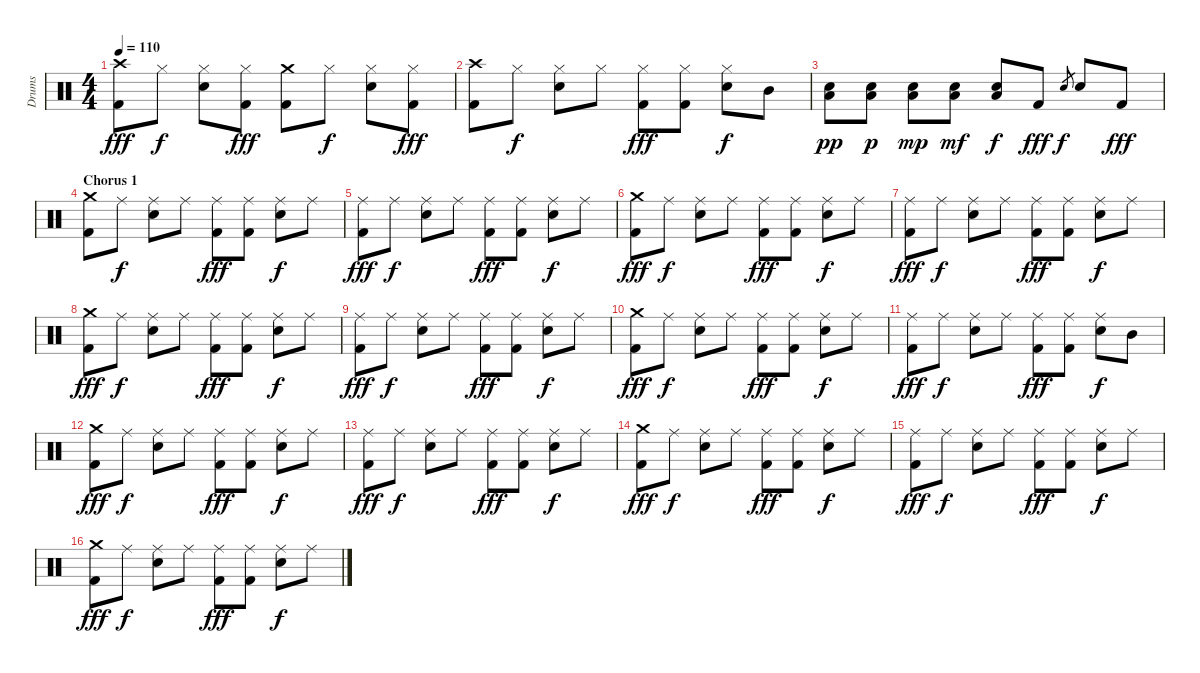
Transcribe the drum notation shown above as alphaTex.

\track ("Drums" "Drums") {instrument percussion}
\staff {score}
\articulation defaults
\ts (4 4)
\tempo 110
\clef neutral
\ks c
("Crash high (hit)" "Kick (hit) 2").8{dy fff} "Hi-Hat (closed)".8{dy f} ("Hi-Hat (closed)" "Snare (hit) 2").8 ("Hi-Hat (closed)" "Kick (hit) 2").8{dy fff} ("Crash medium (hit)" "Kick (hit) 2").8 "Hi-Hat (closed)".8{dy f} ("Hi-Hat (closed)" "Snare (hit) 2").8 ("Hi-Hat (closed)" "Kick (hit) 2").8{dy fff} |
("Crash high (hit)" "Kick (hit) 2").8 "Hi-Hat (closed)".8{dy f} ("Hi-Hat (closed)" "Snare (hit) 2").8 "Hi-Hat (closed)".8 ("Hi-Hat (closed)" "Kick (hit) 2").8{dy fff} ("Hi-Hat (closed)" "Kick (hit) 2").8 ("Hi-Hat (closed)" "Snare (hit) 2").8{dy f} "Mid Tom (hit)".8 |
("Snare (hit) 2" "Low Floor Tom (hit)").8{dy pp} ("Snare (hit) 2" "Low Floor Tom (hit)").8{dy p} ("Snare (hit) 2" "Low Floor Tom (hit)").8{dy mp} ("Snare (hit) 2" "Low Floor Tom (hit)").8{dy mf} ("Snare (hit) 2" "Low Floor Tom (hit)").8{dy f} "Kick (hit) 2".8{dy fff} "Snare (hit) 2".8{gr dy f} "Snare (hit) 2".8 "Kick (hit) 2".8{dy fff} |
\section ("" "Chorus 1")
("Crash medium (hit)" "Kick (hit) 2").8 "Ride (middle)".8{dy f} ("Ride (middle)" "Snare (hit) 2").8 "Ride (middle)".8 ("Ride (middle)" "Kick (hit) 2").8{dy fff} ("Ride (middle)" "Kick (hit) 2").8 ("Ride (middle)" "Snare (hit) 2").8{dy f} "Ride (middle)".8 |
("Ride (middle)" "Kick (hit) 2").8{dy fff} "Ride (middle)".8{dy f} ("Ride (middle)" "Snare (hit) 2").8 "Ride (middle)".8 ("Ride (middle)" "Kick (hit) 2").8{dy fff} ("Ride (middle)" "Kick (hit) 2").8 ("Ride (middle)" "Snare (hit) 2").8{dy f} "Ride (middle)".8 |
("Crash medium (hit)" "Kick (hit) 2").8{dy fff} "Ride (middle)".8{dy f} ("Ride (middle)" "Snare (hit) 2").8 "Ride (middle)".8 ("Ride (middle)" "Kick (hit) 2").8{dy fff} ("Ride (middle)" "Kick (hit) 2").8 ("Ride (middle)" "Snare (hit) 2").8{dy f} "Ride (middle)".8 |
("Ride (middle)" "Kick (hit) 2").8{dy fff} "Ride (middle)".8{dy f} ("Ride (middle)" "Snare (hit) 2").8 "Ride (middle)".8 ("Ride (middle)" "Kick (hit) 2").8{dy fff} ("Ride (middle)" "Kick (hit) 2").8 ("Ride (middle)" "Snare (hit) 2").8{dy f} "Ride (middle)".8 |
("Crash medium (hit)" "Kick (hit) 2").8{dy fff} "Ride (middle)".8{dy f} ("Ride (middle)" "Snare (hit) 2").8 "Ride (middle)".8 ("Ride (middle)" "Kick (hit) 2").8{dy fff} ("Ride (middle)" "Kick (hit) 2").8 ("Ride (middle)" "Snare (hit) 2").8{dy f} "Ride (middle)".8 |
("Ride (middle)" "Kick (hit) 2").8{dy fff} "Ride (middle)".8{dy f} ("Ride (middle)" "Snare (hit) 2").8 "Ride (middle)".8 ("Ride (middle)" "Kick (hit) 2").8{dy fff} ("Ride (middle)" "Kick (hit) 2").8 ("Ride (middle)" "Snare (hit) 2").8{dy f} "Ride (middle)".8 |
("Crash medium (hit)" "Kick (hit) 2").8{dy fff} "Ride (middle)".8{dy f} ("Ride (middle)" "Snare (hit) 2").8 "Ride (middle)".8 ("Ride (middle)" "Kick (hit) 2").8{dy fff} ("Ride (middle)" "Kick (hit) 2").8 ("Ride (middle)" "Snare (hit) 2").8{dy f} "Ride (middle)".8 |
("Ride (middle)" "Kick (hit) 2").8{dy fff} "Ride (middle)".8{dy f} ("Ride (middle)" "Snare (hit) 2").8 "Ride (middle)".8 ("Ride (middle)" "Kick (hit) 2").8{dy fff} ("Ride (middle)" "Kick (hit) 2").8 ("Ride (middle)" "Snare (hit) 2").8{dy f} "Mid Tom (hit)".8 |
("Crash medium (hit)" "Kick (hit) 2").8{dy fff} "Ride (middle)".8{dy f} ("Ride (middle)" "Snare (hit) 2").8 "Ride (middle)".8 ("Ride (middle)" "Kick (hit) 2").8{dy fff} ("Ride (middle)" "Kick (hit) 2").8 ("Ride (middle)" "Snare (hit) 2").8{dy f} "Ride (middle)".8 |
("Ride (middle)" "Kick (hit) 2").8{dy fff} "Ride (middle)".8{dy f} ("Ride (middle)" "Snare (hit) 2").8 "Ride (middle)".8 ("Ride (middle)" "Kick (hit) 2").8{dy fff} ("Ride (middle)" "Kick (hit) 2").8 ("Ride (middle)" "Snare (hit) 2").8{dy f} "Ride (middle)".8 |
("Crash medium (hit)" "Kick (hit) 2").8{dy fff} "Ride (middle)".8{dy f} ("Ride (middle)" "Snare (hit) 2").8 "Ride (middle)".8 ("Ride (middle)" "Kick (hit) 2").8{dy fff} ("Ride (middle)" "Kick (hit) 2").8 ("Ride (middle)" "Snare (hit) 2").8{dy f} "Ride (middle)".8 |
("Ride (middle)" "Kick (hit) 2").8{dy fff} "Ride (middle)".8{dy f} ("Ride (middle)" "Snare (hit) 2").8 "Ride (middle)".8 ("Ride (middle)" "Kick (hit) 2").8{dy fff} ("Ride (middle)" "Kick (hit) 2").8 ("Ride (middle)" "Snare (hit) 2").8{dy f} "Ride (middle)".8 |
("Crash medium (hit)" "Kick (hit) 2").8{dy fff} "Ride (middle)".8{dy f} ("Ride (middle)" "Snare (hit) 2").8 "Ride (middle)".8 ("Ride (middle)" "Kick (hit) 2").8{dy fff} ("Ride (middle)" "Kick (hit) 2").8 ("Ride (middle)" "Snare (hit) 2").8{dy f} "Ride (middle)".8
